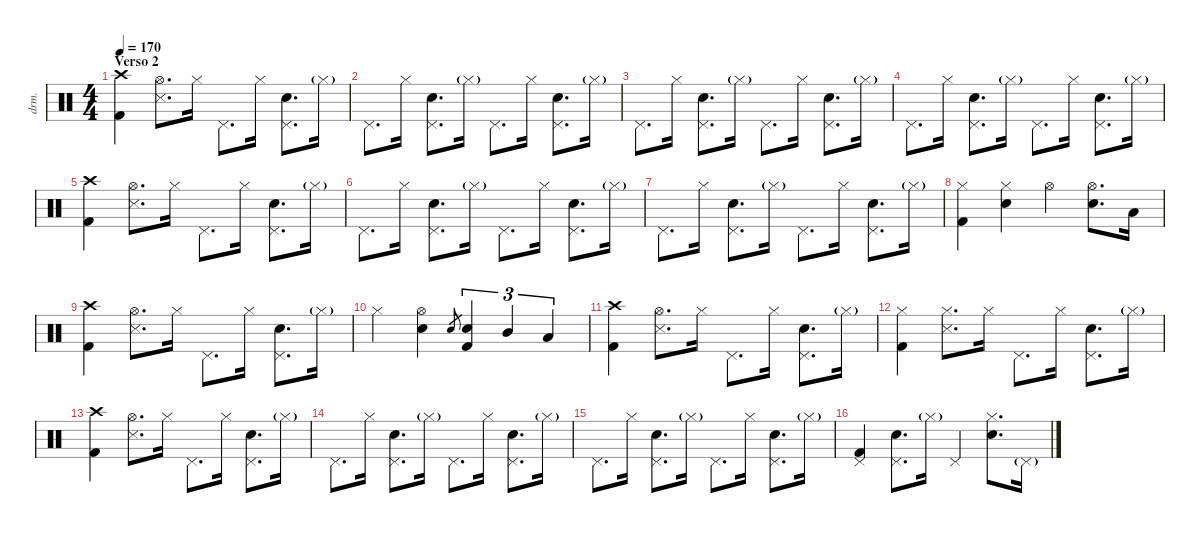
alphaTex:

\defaultSystemsLayout 4
\hideDynamics
\useSystemSignSeparator
\otherSystemsTrackNameOrientation horizontal
\extendBarLines
\track ("Drums" "drm.") {instrument percussion}
\staff {score}
\articulation defaults
\ts (4 4)
\section ("" "Verso 2")
\tempo 170
\clef neutral
\ks c
("Crash high (hit)" "Kick (hit) 2").4{dy f beam Down} ("Hi-Hat (open)" "Snare (side stick) 3").8{d beam Down} "Hi-Hat (closed)".16{beam Down} "Pedal Hi-Hat (hit)".8{d beam Down} "Hi-Hat (closed)".16{beam Down} ("Pedal Hi-Hat (hit)" "Snare (hit) 2").8{d beam Down} "Hi-Hat (closed)"{g}.16{dy mf beam Down} |
"Pedal Hi-Hat (hit)".8{d dy f beam Down} "Hi-Hat (closed)".16{beam Down} ("Pedal Hi-Hat (hit)" "Snare (hit) 2").8{d beam Down} "Hi-Hat (closed)"{g}.16{dy mf beam Down} "Pedal Hi-Hat (hit)".8{d dy f beam Down} "Hi-Hat (closed)".16{beam Down} ("Pedal Hi-Hat (hit)" "Snare (hit) 2").8{d beam Down} "Hi-Hat (closed)"{g}.16{dy mf beam Down} |
"Pedal Hi-Hat (hit)".8{d dy f beam Down} "Hi-Hat (closed)".16{beam Down} ("Pedal Hi-Hat (hit)" "Snare (hit) 2").8{d beam Down} "Hi-Hat (closed)"{g}.16{dy mf beam Down} "Pedal Hi-Hat (hit)".8{d dy f beam Down} "Hi-Hat (closed)".16{beam Down} ("Pedal Hi-Hat (hit)" "Snare (hit) 2").8{d beam Down} "Hi-Hat (closed)"{g}.16{dy mf beam Down} |
"Pedal Hi-Hat (hit)".8{d dy f beam Down} "Hi-Hat (closed)".16{beam Down} ("Pedal Hi-Hat (hit)" "Snare (hit) 2").8{d beam Down} "Hi-Hat (closed)"{g}.16{dy mf beam Down} "Pedal Hi-Hat (hit)".8{d dy f beam Down} "Hi-Hat (closed)".16{beam Down} ("Pedal Hi-Hat (hit)" "Snare (hit) 2").8{d beam Down} "Hi-Hat (closed)"{g}.16{dy mf beam Down} |
("Crash high (hit)" "Kick (hit) 2").4{dy f beam Down} ("Hi-Hat (open)" "Snare (side stick) 3").8{d beam Down} "Hi-Hat (closed)".16{beam Down} "Pedal Hi-Hat (hit)".8{d beam Down} "Hi-Hat (closed)".16{beam Down} ("Pedal Hi-Hat (hit)" "Snare (hit) 2").8{d beam Down} "Hi-Hat (closed)"{g}.16{dy mf beam Down} |
"Pedal Hi-Hat (hit)".8{d dy f beam Down} "Hi-Hat (closed)".16{beam Down} ("Pedal Hi-Hat (hit)" "Snare (hit) 2").8{d beam Down} "Hi-Hat (closed)"{g}.16{dy mf beam Down} "Pedal Hi-Hat (hit)".8{d dy f beam Down} "Hi-Hat (closed)".16{beam Down} ("Pedal Hi-Hat (hit)" "Snare (hit) 2").8{d beam Down} "Hi-Hat (closed)"{g}.16{dy mf beam Down} |
"Pedal Hi-Hat (hit)".8{d dy f beam Down} "Hi-Hat (closed)".16{beam Down} ("Pedal Hi-Hat (hit)" "Snare (hit) 2").8{d beam Down} "Hi-Hat (closed)"{g}.16{dy mf beam Down} "Pedal Hi-Hat (hit)".8{d dy f beam Down} "Hi-Hat (closed)".16{beam Down} ("Pedal Hi-Hat (hit)" "Snare (hit) 2").8{d beam Down} "Hi-Hat (closed)"{g}.16{dy mf beam Down} |
("Hi-Hat (closed)" "Kick (hit) 2").4{dy f beam Down} ("Hi-Hat (closed)" "Snare (hit) 2").4{beam Down} "Hi-Hat (open)".4{beam Down} ("Hi-Hat (open)" "Snare (hit) 2").8{d beam Down} "Low Tom (hit)".16{beam Down} |
("Crash high (hit)" "Kick (hit) 2").4{beam Down} ("Hi-Hat (open)" "Snare (side stick) 3").8{d beam Down} "Hi-Hat (closed)".16{beam Down} "Pedal Hi-Hat (hit)".8{d beam Down} "Hi-Hat (closed)".16{beam Down} ("Pedal Hi-Hat (hit)" "Snare (hit) 2").8{d beam Down} "Hi-Hat (closed)"{g}.16{dy mf beam Down} |
"Hi-Hat (closed)".4{dy f beam Down} ("Hi-Hat (open)" "Snare (hit) 2").4{beam Down} "Snare (hit) 2".8{gr dy mf beam Up} ("Snare (hit) 2" "Kick (hit) 2").4{tu (3 2) dy f beam Up} "Mid Tom (hit)".4{tu (3 2) beam Up} "Low Tom (hit)".4{tu (3 2) beam Up} |
("Crash high (hit)" "Kick (hit) 2").4{beam Down} ("Hi-Hat (open)" "Snare (side stick) 3").8{d beam Down} "Hi-Hat (closed)".16{beam Down} "Pedal Hi-Hat (hit)".8{d beam Down} "Hi-Hat (closed)".16{beam Down} ("Pedal Hi-Hat (hit)" "Snare (hit) 2").8{d beam Down} "Hi-Hat (closed)"{g}.16{dy mf beam Down} |
("Hi-Hat (closed)" "Kick (hit) 2").4{dy f beam Down} ("Hi-Hat (closed)" "Snare (side stick) 3").8{d beam Down} "Hi-Hat (closed)".16{beam Down} "Pedal Hi-Hat (hit)".8{d beam Down} "Hi-Hat (closed)".16{beam Down} ("Pedal Hi-Hat (hit)" "Snare (hit) 2").8{d beam Down} "Hi-Hat (closed)"{g}.16{dy mf beam Down} |
("Crash high (hit)" "Kick (hit) 2").4{dy f beam Down} ("Hi-Hat (open)" "Snare (side stick) 3").8{d beam Down} "Hi-Hat (closed)".16{beam Down} "Pedal Hi-Hat (hit)".8{d beam Down} "Hi-Hat (closed)".16{beam Down} ("Pedal Hi-Hat (hit)" "Snare (hit) 2").8{d beam Down} "Hi-Hat (closed)"{g}.16{dy mf beam Down} |
"Pedal Hi-Hat (hit)".8{d dy f beam Down} "Hi-Hat (closed)".16{beam Down} ("Pedal Hi-Hat (hit)" "Snare (hit) 2").8{d beam Down} "Hi-Hat (closed)"{g}.16{dy mf beam Down} "Pedal Hi-Hat (hit)".8{d dy f beam Down} "Hi-Hat (closed)".16{beam Down} ("Pedal Hi-Hat (hit)" "Snare (hit) 2").8{d beam Down} "Hi-Hat (closed)"{g}.16{dy mf beam Down} |
"Pedal Hi-Hat (hit)".8{d dy f beam Down} "Hi-Hat (closed)".16{beam Down} ("Pedal Hi-Hat (hit)" "Snare (hit) 2").8{d beam Down} "Hi-Hat (closed)"{g}.16{dy mf beam Down} "Pedal Hi-Hat (hit)".8{d dy f beam Down} "Hi-Hat (closed)".16{beam Down} ("Pedal Hi-Hat (hit)" "Snare (hit) 2").8{d beam Down} "Hi-Hat (closed)"{g}.16{dy mf beam Down} |
("Pedal Hi-Hat (hit)" "Kick (hit) 2").4{dy f beam Up} ("Pedal Hi-Hat (hit)" "Snare (hit) 2").8{d beam Down} "Hi-Hat (closed)"{g}.16{dy mf beam Down} "Pedal Hi-Hat (hit)".4{dy f beam Up} ("Hi-Hat (closed)" "Snare (hit) 2").8{d beam Down} "Pedal Hi-Hat (hit)"{g}.16{dy mf beam Down}
